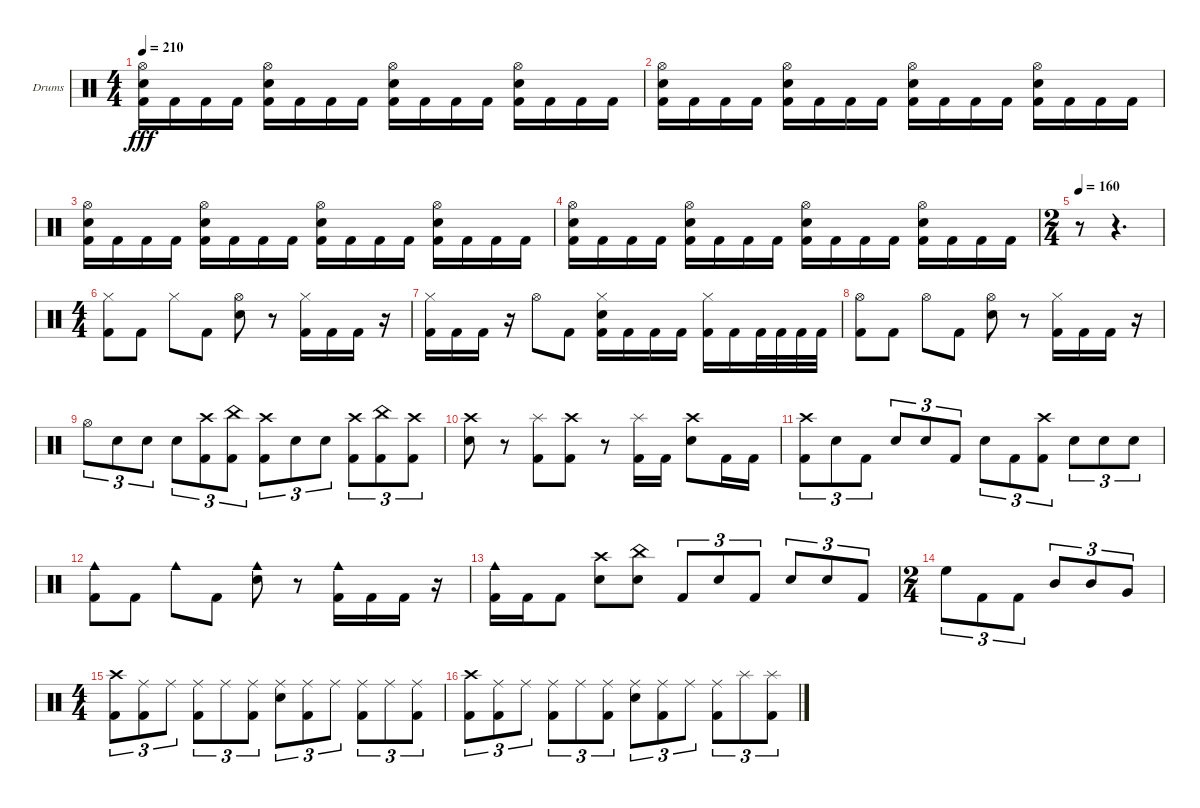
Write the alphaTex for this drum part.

\bracketExtendMode groupsimilarinstruments
\firstSystemTrackNameOrientation horizontal
\otherSystemsTrackNameOrientation horizontal
\track ("Gigante" "Drums") {instrument percussion}
\staff {score}
\articulation defaults
\ts (4 4)
\tempo 210
\clef neutral
\ks c
("Hi-Hat (open)" "Snare (hit) 2" "Kick (hit) 2").16{dy fff} "Kick (hit) 2".16 "Kick (hit) 2".16 "Kick (hit) 2".16 ("Hi-Hat (open)" "Snare (hit) 2" "Kick (hit) 2").16 "Kick (hit) 2".16 "Kick (hit) 2".16 "Kick (hit) 2".16 ("Hi-Hat (open)" "Snare (hit) 2" "Kick (hit) 2").16 "Kick (hit) 2".16 "Kick (hit) 2".16 "Kick (hit) 2".16 ("Hi-Hat (open)" "Snare (hit) 2" "Kick (hit) 2").16 "Kick (hit) 2".16 "Kick (hit) 2".16 "Kick (hit) 2".16 |
("Hi-Hat (open)" "Snare (hit) 2" "Kick (hit) 2").16 "Kick (hit) 2".16 "Kick (hit) 2".16 "Kick (hit) 2".16 ("Hi-Hat (open)" "Snare (hit) 2" "Kick (hit) 2").16 "Kick (hit) 2".16 "Kick (hit) 2".16 "Kick (hit) 2".16 ("Hi-Hat (open)" "Snare (hit) 2" "Kick (hit) 2").16 "Kick (hit) 2".16 "Kick (hit) 2".16 "Kick (hit) 2".16 ("Hi-Hat (open)" "Snare (hit) 2" "Kick (hit) 2").16 "Kick (hit) 2".16 "Kick (hit) 2".16 "Kick (hit) 2".16 |
("Hi-Hat (open)" "Snare (hit) 2" "Kick (hit) 2").16 "Kick (hit) 2".16 "Kick (hit) 2".16 "Kick (hit) 2".16 ("Hi-Hat (open)" "Snare (hit) 2" "Kick (hit) 2").16 "Kick (hit) 2".16 "Kick (hit) 2".16 "Kick (hit) 2".16 ("Hi-Hat (open)" "Snare (hit) 2" "Kick (hit) 2").16 "Kick (hit) 2".16 "Kick (hit) 2".16 "Kick (hit) 2".16 ("Hi-Hat (open)" "Snare (hit) 2" "Kick (hit) 2").16 "Kick (hit) 2".16 "Kick (hit) 2".16 "Kick (hit) 2".16 |
("Hi-Hat (open)" "Snare (hit) 2" "Kick (hit) 2").16 "Kick (hit) 2".16 "Kick (hit) 2".16 "Kick (hit) 2".16 ("Hi-Hat (open)" "Snare (hit) 2" "Kick (hit) 2").16 "Kick (hit) 2".16 "Kick (hit) 2".16 "Kick (hit) 2".16 ("Hi-Hat (open)" "Snare (hit) 2" "Kick (hit) 2").16 "Kick (hit) 2".16 "Kick (hit) 2".16 "Kick (hit) 2".16 ("Hi-Hat (open)" "Snare (hit) 2" "Kick (hit) 2").16 "Kick (hit) 2".16 "Kick (hit) 2".16 "Kick (hit) 2".16 |
\ts (2 4)
\beaming (8 2 2)
\tempo 160
r.8 r.4{d} |
\ts (4 4)
\beaming (8 2 2 2 2)
("Hi-Hat (closed)" "Kick (hit) 2").8 "Kick (hit) 2".8 "Hi-Hat (closed)".8 "Kick (hit) 2".8 ("Hi-Hat (open)" "Snare (hit) 2").8 r.8 ("Hi-Hat (closed)" "Kick (hit) 2").16 "Kick (hit) 2".16 "Kick (hit) 2".16 r.16 |
("Hi-Hat (closed)" "Kick (hit) 2").16 "Kick (hit) 2".16 "Kick (hit) 2".16 r.16 "Hi-Hat (open)".8 "Kick (hit) 2".8 ("Hi-Hat (closed)" "Snare (hit) 2" "Kick (hit) 2").16 "Kick (hit) 2".16 "Kick (hit) 2".16 "Kick (hit) 2".16 ("Hi-Hat (closed)" "Kick (hit) 2").16 "Kick (hit) 2".16 "Kick (hit) 2".32 "Kick (hit) 2".32 "Kick (hit) 2".32 "Kick (hit) 2".32 |
("Hi-Hat (open)" "Kick (hit) 2").8 "Kick (hit) 2".8 "Hi-Hat (open)".8 "Kick (hit) 2".8 ("Hi-Hat (open)" "Snare (hit) 2").8 r.8 ("Hi-Hat (closed)" "Kick (hit) 2").16 "Kick (hit) 2".16 "Kick (hit) 2".16 r.16 |
"Hi-Hat (open)".8{tu (3 2)} "Snare (hit) 2".8{tu (3 2)} "Snare (hit) 2".8{tu (3 2)} "Snare (hit) 2".8{tu (3 2)} ("Crash high (hit)" "Kick (hit) 2").8{tu (3 2)} ("China (hit)" "Kick (hit) 2").8{tu (3 2)} ("Crash high (hit)" "Kick (hit) 2").8{tu (3 2)} "Snare (hit) 2".8{tu (3 2)} "Snare (hit) 2".8{tu (3 2)} ("Crash high (hit)" "Kick (hit) 2").8{tu (3 2)} ("China (hit)" "Kick (hit) 2").8{tu (3 2)} ("Crash high (hit)" "Kick (hit) 2").8{tu (3 2)} |
("Crash high (hit)" "Snare (hit) 2").8 r.8 ("Splash (hit)" "Kick (hit) 2").8 ("Crash high (hit)" "Kick (hit) 2").8 r.8 ("Splash (hit)" "Kick (hit) 2").16 "Kick (hit) 2".16 ("Crash high (hit)" "Snare (hit) 2").8 "Kick (hit) 2".16 "Kick (hit) 2".16 |
("Crash high (hit)" "Kick (hit) 2").8{tu (3 2)} "Snare (hit) 2".8{tu (3 2)} "Kick (hit) 2".8{tu (3 2)} "Snare (hit) 2".8{tu (3 2)} "Snare (hit) 2".8{tu (3 2)} "Kick (hit) 2".8{tu (3 2)} "Snare (hit) 2".8{tu (3 2)} "Kick (hit) 2".8{tu (3 2)} ("Crash high (hit)" "Kick (hit) 2").8{tu (3 2)} "Snare (hit) 2".8{tu (3 2)} "Snare (hit) 2".8{tu (3 2)} "Snare (hit) 2".8{tu (3 2)} |
("Cowbell medium (hit)" "Kick (hit) 2").8 "Kick (hit) 2".8 "Cowbell medium (hit)".8 "Kick (hit) 2".8 ("Cowbell medium (hit)" "Snare (hit) 2").8 r.8 ("Cowbell medium (hit)" "Kick (hit) 2").16 "Kick (hit) 2".16 "Kick (hit) 2".16 r.16 |
("Cowbell medium (hit)" "Kick (hit) 2").16 "Kick (hit) 2".16 "Kick (hit) 2".8 ("Crash high (hit)" "Snare (hit) 2").8 ("China (hit)" "Snare (hit) 2").8 "Kick (hit) 2".8{tu (3 2)} "Snare (hit) 2".8{tu (3 2)} "Kick (hit) 2".8{tu (3 2)} "Snare (hit) 2".8{tu (3 2)} "Snare (hit) 2".8{tu (3 2)} "Kick (hit) 2".8{tu (3 2)} |
\ts (2 4)
\beaming (8 2 2)
"High Floor Tom (hit)".8{tu (3 2)} "Kick (hit) 2".8{tu (3 2)} "Kick (hit) 2".8{tu (3 2)} "Mid Tom (hit)".8{tu (3 2)} "Mid Tom (hit)".8{tu (3 2)} "Very Low Tom (hit)".8{tu (3 2)} |
\ts (4 4)
\beaming (8 2 2 2 2)
("Crash high (hit)" "Kick (hit) 2").8{tu (3 2)} ("Ride (middle)" "Kick (hit) 2").8{tu (3 2)} "Ride (middle)".8{tu (3 2)} ("Ride (middle)" "Kick (hit) 2").8{tu (3 2)} "Ride (middle)".8{tu (3 2)} ("Ride (middle)" "Kick (hit) 2").8{tu (3 2)} ("Ride (middle)" "Snare (hit) 2").8{tu (3 2)} ("Ride (middle)" "Kick (hit) 2").8{tu (3 2)} "Ride (middle)".8{tu (3 2)} ("Ride (middle)" "Kick (hit) 2").8{tu (3 2)} "Ride (middle)".8{tu (3 2)} ("Ride (middle)" "Kick (hit) 2").8{tu (3 2)} |
("Crash high (hit)" "Kick (hit) 2").8{tu (3 2)} ("Ride (middle)" "Kick (hit) 2").8{tu (3 2)} "Ride (middle)".8{tu (3 2)} ("Ride (middle)" "Kick (hit) 2").8{tu (3 2)} "Ride (middle)".8{tu (3 2)} ("Ride (middle)" "Kick (hit) 2").8{tu (3 2)} ("Ride (middle)" "Snare (hit) 2").8{tu (3 2)} ("Ride (middle)" "Kick (hit) 2").8{tu (3 2)} "Ride (middle)".8{tu (3 2)} ("Ride (middle)" "Kick (hit) 2").8{tu (3 2)} "Splash (hit)".8{tu (3 2)} ("Splash (hit)" "Kick (hit) 2").8{tu (3 2)}
